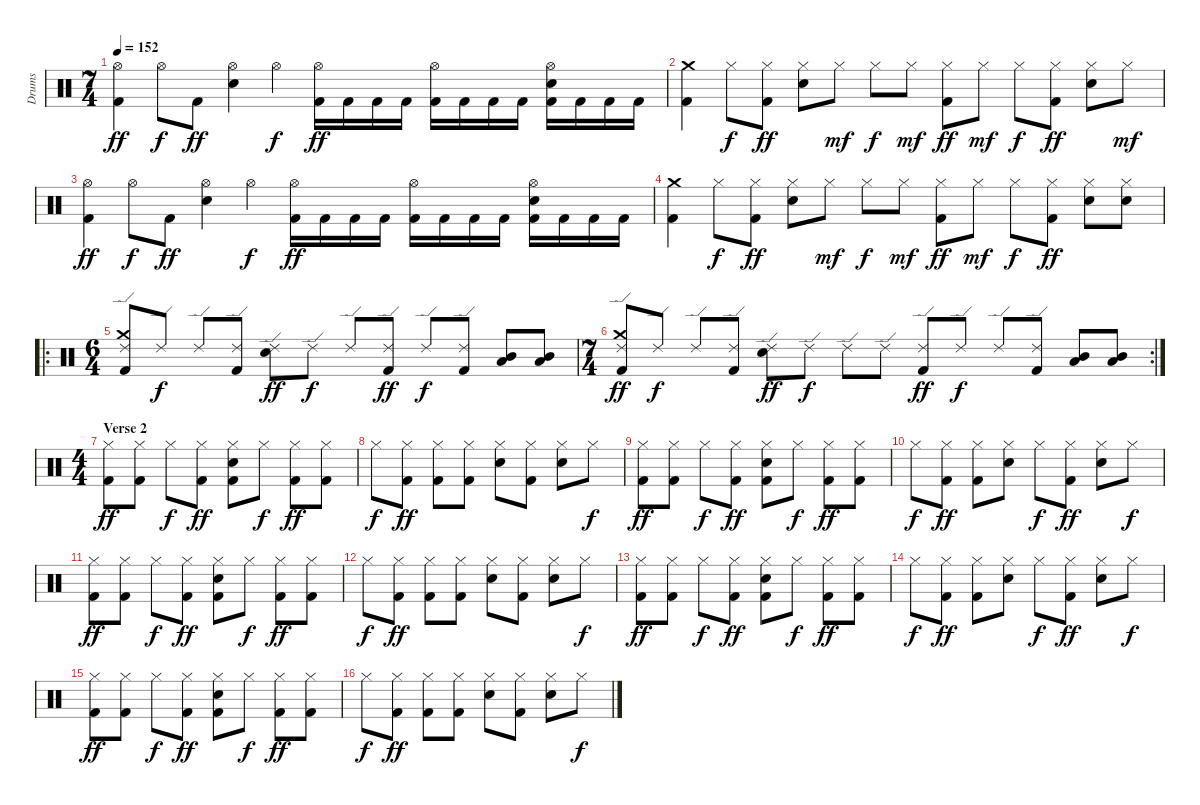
\track ("Drums" "Drums") {instrument percussion}
\staff {score}
\articulation defaults
\ts (7 4)
\tempo 152
\clef neutral
\ks c
("Hi-Hat (open)" "Kick (hit) 2").4{dy ff} "Hi-Hat (open)".8{dy f} "Kick (hit) 2".8{dy ff} ("Hi-Hat (open)" "Electric Snare (hit)").4 "Hi-Hat (open)".4{dy f} ("Hi-Hat (open)" "Kick (hit) 2").16{dy ff} "Kick (hit) 2".16 "Kick (hit) 2".16 "Kick (hit) 2".16 ("Hi-Hat (open)" "Kick (hit) 2").16 "Kick (hit) 2".16 "Kick (hit) 2".16 "Kick (hit) 2".16 ("Hi-Hat (open)" "Electric Snare (hit)" "Kick (hit) 2").16 "Kick (hit) 2".16 "Kick (hit) 2".16 "Kick (hit) 2".16 |
("Crash medium (hit)" "Kick (hit) 2").4 "Hi-Hat (closed)".8{dy f} ("Hi-Hat (closed)" "Kick (hit) 2").8{dy ff} ("Hi-Hat (closed)" "Electric Snare (hit)").8 "Hi-Hat (closed)".8{dy mf} "Hi-Hat (closed)".8{dy f} "Hi-Hat (closed)".8{dy mf} ("Hi-Hat (closed)" "Kick (hit) 2").8{dy ff} "Hi-Hat (closed)".8{dy mf} "Hi-Hat (closed)".8{dy f} ("Hi-Hat (closed)" "Kick (hit) 2").8{dy ff} ("Hi-Hat (closed)" "Electric Snare (hit)").8 "Hi-Hat (closed)".8{dy mf} |
("Hi-Hat (open)" "Kick (hit) 2").4{dy ff} "Hi-Hat (open)".8{dy f} "Kick (hit) 2".8{dy ff} ("Hi-Hat (open)" "Electric Snare (hit)").4 "Hi-Hat (open)".4{dy f} ("Hi-Hat (open)" "Kick (hit) 2").16{dy ff} "Kick (hit) 2".16 "Kick (hit) 2".16 "Kick (hit) 2".16 ("Hi-Hat (open)" "Kick (hit) 2").16 "Kick (hit) 2".16 "Kick (hit) 2".16 "Kick (hit) 2".16 ("Hi-Hat (open)" "Electric Snare (hit)" "Kick (hit) 2").16 "Kick (hit) 2".16 "Kick (hit) 2".16 "Kick (hit) 2".16 |
("Crash medium (hit)" "Kick (hit) 2").4 "Hi-Hat (closed)".8{dy f} ("Hi-Hat (closed)" "Kick (hit) 2").8{dy ff} ("Hi-Hat (closed)" "Electric Snare (hit)").8 "Hi-Hat (closed)".8{dy mf} "Hi-Hat (closed)".8{dy f} "Hi-Hat (closed)".8{dy mf} ("Hi-Hat (closed)" "Kick (hit) 2").8{dy ff} "Hi-Hat (closed)".8{dy mf} "Hi-Hat (closed)".8{dy f} ("Hi-Hat (closed)" "Kick (hit) 2").8{dy ff} ("Hi-Hat (closed)" "Electric Snare (hit)").8 ("Hi-Hat (closed)" "Electric Snare (hit)").8 |
\ro
\ts (6 4)
("Ride (edge) 2" "Crash medium (hit)" "Kick (hit) 2").8 "Ride (edge) 2".8{dy f} "Ride (edge) 2".8 ("Ride (edge) 2" "Kick (hit) 2").8 ("Ride (edge) 2" "Electric Snare (hit)").8{dy ff} "Ride (edge) 2".8{dy f} "Ride (edge) 2".8 ("Ride (edge) 2" "Kick (hit) 2").8{dy ff} "Ride (edge) 2".8{dy f} ("Ride (edge) 2" "Kick (hit) 2").8 ("Mid Tom (hit)" "Low Tom (hit)").8 ("Mid Tom (hit)" "Low Tom (hit)").8 |
\rc 2
\ts (7 4)
("Ride (edge) 2" "Crash medium (hit)" "Kick (hit) 2").8{dy ff} "Ride (edge) 2".8{dy f} "Ride (edge) 2".8 ("Ride (edge) 2" "Kick (hit) 2").8 ("Ride (edge) 2" "Electric Snare (hit)").8{dy ff} "Ride (edge) 2".8{dy f} "Ride (edge) 2".8 "Ride (edge) 2".8 ("Ride (edge) 2" "Kick (hit) 2").8{dy ff} "Ride (edge) 2".8{dy f} "Ride (edge) 2".8 ("Ride (edge) 2" "Kick (hit) 2").8 ("Mid Tom (hit)" "Low Tom (hit)").8 ("Mid Tom (hit)" "Low Tom (hit)").8 |
\ts (4 4)
\section ("" "Verse 2")
("Hi-Hat (closed)" "Kick (hit) 2").8{dy ff} ("Hi-Hat (closed)" "Kick (hit) 2").8 "Hi-Hat (closed)".8{dy f} ("Hi-Hat (closed)" "Kick (hit) 2").8{dy ff} ("Hi-Hat (closed)" "Electric Snare (hit)" "Kick (hit) 2").8 "Hi-Hat (closed)".8{dy f} ("Hi-Hat (closed)" "Kick (hit) 2").8{dy ff} ("Hi-Hat (closed)" "Kick (hit) 2").8 |
"Hi-Hat (closed)".8{dy f} ("Hi-Hat (closed)" "Kick (hit) 2").8{dy ff} ("Hi-Hat (closed)" "Kick (hit) 2").8 ("Hi-Hat (closed)" "Kick (hit) 2").8 ("Hi-Hat (closed)" "Electric Snare (hit)").8 ("Hi-Hat (closed)" "Kick (hit) 2").8 ("Hi-Hat (closed)" "Electric Snare (hit)").8 "Hi-Hat (closed)".8{dy f} |
("Hi-Hat (closed)" "Kick (hit) 2").8{dy ff} ("Hi-Hat (closed)" "Kick (hit) 2").8 "Hi-Hat (closed)".8{dy f} ("Hi-Hat (closed)" "Kick (hit) 2").8{dy ff} ("Hi-Hat (closed)" "Electric Snare (hit)" "Kick (hit) 2").8 "Hi-Hat (closed)".8{dy f} ("Hi-Hat (closed)" "Kick (hit) 2").8{dy ff} ("Hi-Hat (closed)" "Kick (hit) 2").8 |
"Hi-Hat (closed)".8{dy f} ("Hi-Hat (closed)" "Kick (hit) 2").8{dy ff} ("Hi-Hat (closed)" "Kick (hit) 2").8 ("Hi-Hat (closed)" "Electric Snare (hit)").8 "Hi-Hat (closed)".8{dy f} ("Hi-Hat (closed)" "Kick (hit) 2").8{dy ff} ("Hi-Hat (closed)" "Electric Snare (hit)").8 "Hi-Hat (closed)".8{dy f} |
("Hi-Hat (closed)" "Kick (hit) 2").8{dy ff} ("Hi-Hat (closed)" "Kick (hit) 2").8 "Hi-Hat (closed)".8{dy f} ("Hi-Hat (closed)" "Kick (hit) 2").8{dy ff} ("Hi-Hat (closed)" "Electric Snare (hit)" "Kick (hit) 2").8 "Hi-Hat (closed)".8{dy f} ("Hi-Hat (closed)" "Kick (hit) 2").8{dy ff} ("Hi-Hat (closed)" "Kick (hit) 2").8 |
"Hi-Hat (closed)".8{dy f} ("Hi-Hat (closed)" "Kick (hit) 2").8{dy ff} ("Hi-Hat (closed)" "Kick (hit) 2").8 ("Hi-Hat (closed)" "Kick (hit) 2").8 ("Hi-Hat (closed)" "Electric Snare (hit)").8 ("Hi-Hat (closed)" "Kick (hit) 2").8 ("Hi-Hat (closed)" "Electric Snare (hit)").8 "Hi-Hat (closed)".8{dy f} |
("Hi-Hat (closed)" "Kick (hit) 2").8{dy ff} ("Hi-Hat (closed)" "Kick (hit) 2").8 "Hi-Hat (closed)".8{dy f} ("Hi-Hat (closed)" "Kick (hit) 2").8{dy ff} ("Hi-Hat (closed)" "Electric Snare (hit)" "Kick (hit) 2").8 "Hi-Hat (closed)".8{dy f} ("Hi-Hat (closed)" "Kick (hit) 2").8{dy ff} ("Hi-Hat (closed)" "Kick (hit) 2").8 |
"Hi-Hat (closed)".8{dy f} ("Hi-Hat (closed)" "Kick (hit) 2").8{dy ff} ("Hi-Hat (closed)" "Kick (hit) 2").8 ("Hi-Hat (closed)" "Electric Snare (hit)").8 "Hi-Hat (closed)".8{dy f} ("Hi-Hat (closed)" "Kick (hit) 2").8{dy ff} ("Hi-Hat (closed)" "Electric Snare (hit)").8 "Hi-Hat (closed)".8{dy f} |
("Hi-Hat (closed)" "Kick (hit) 2").8{dy ff} ("Hi-Hat (closed)" "Kick (hit) 2").8 "Hi-Hat (closed)".8{dy f} ("Hi-Hat (closed)" "Kick (hit) 2").8{dy ff} ("Hi-Hat (closed)" "Electric Snare (hit)" "Kick (hit) 2").8 "Hi-Hat (closed)".8{dy f} ("Hi-Hat (closed)" "Kick (hit) 2").8{dy ff} ("Hi-Hat (closed)" "Kick (hit) 2").8 |
"Hi-Hat (closed)".8{dy f} ("Hi-Hat (closed)" "Kick (hit) 2").8{dy ff} ("Hi-Hat (closed)" "Kick (hit) 2").8 ("Hi-Hat (closed)" "Kick (hit) 2").8 ("Hi-Hat (closed)" "Electric Snare (hit)").8 ("Hi-Hat (closed)" "Kick (hit) 2").8 ("Hi-Hat (closed)" "Electric Snare (hit)").8 "Hi-Hat (closed)".8{dy f}
